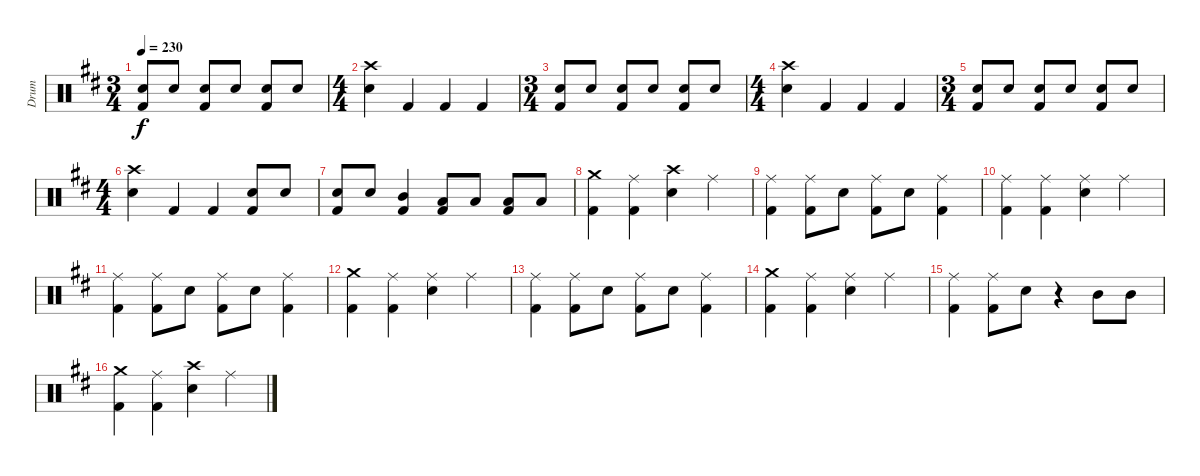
\track ("Drum" "Drum") {instrument percussion}
\staff {score}
\articulation defaults
\ts (3 4)
\tempo 230
\clef neutral
\ks d
("Snare (hit) 2" "Kick (hit) 2").8{dy f} "Snare (hit) 2".8 ("Snare (hit) 2" "Kick (hit) 2").8 "Snare (hit) 2".8 ("Snare (hit) 2" "Kick (hit) 2").8 "Snare (hit) 2".8 |
\ts (4 4)
("Crash high (hit)" "Snare (hit) 2").4 "Kick (hit) 2".4 "Kick (hit) 2".4 "Kick (hit) 2".4 |
\ts (3 4)
("Snare (hit) 2" "Kick (hit) 2").8 "Snare (hit) 2".8 ("Snare (hit) 2" "Kick (hit) 2").8 "Snare (hit) 2".8 ("Snare (hit) 2" "Kick (hit) 2").8 "Snare (hit) 2".8 |
\ts (4 4)
("Crash high (hit)" "Snare (hit) 2").4 "Kick (hit) 2".4 "Kick (hit) 2".4 "Kick (hit) 2".4 |
\ts (3 4)
("Snare (hit) 2" "Kick (hit) 2").8 "Snare (hit) 2".8 ("Snare (hit) 2" "Kick (hit) 2").8 "Snare (hit) 2".8 ("Snare (hit) 2" "Kick (hit) 2").8 "Snare (hit) 2".8 |
\ts (4 4)
("Crash high (hit)" "Snare (hit) 2").4 "Kick (hit) 2".4 "Kick (hit) 2".4 ("Snare (hit) 2" "Kick (hit) 2").8 "Snare (hit) 2".8 |
("Snare (hit) 2" "Kick (hit) 2").8 "Snare (hit) 2".8 ("Mid Tom (hit)" "Kick (hit) 2").4 ("Low Tom (hit)" "Kick (hit) 2").8 "Low Tom (hit)".8 ("Low Tom (hit)" "Kick (hit) 2").8 "Low Tom (hit)".8 |
("Crash medium (hit)" "Kick (hit) 2").4 ("Ride (middle)" "Kick (hit) 2").4 ("Crash high (hit)" "Snare (hit) 2").4 "Ride (middle)".4 |
("Ride (middle)" "Kick (hit) 2").4 ("Ride (middle)" "Kick (hit) 2").8 "Snare (hit) 2".8 ("Ride (middle)" "Kick (hit) 2").8 "Snare (hit) 2".8 ("Ride (middle)" "Kick (hit) 2").4 |
("Ride (middle)" "Kick (hit) 2").4 ("Ride (middle)" "Kick (hit) 2").4 ("Ride (middle)" "Snare (hit) 2").4 "Ride (middle)".4 |
("Ride (middle)" "Kick (hit) 2").4 ("Ride (middle)" "Kick (hit) 2").8 "Snare (hit) 2".8 ("Ride (middle)" "Kick (hit) 2").8 "Snare (hit) 2".8 ("Ride (middle)" "Kick (hit) 2").4 |
("Crash medium (hit)" "Kick (hit) 2").4 ("Ride (middle)" "Kick (hit) 2").4 ("Ride (middle)" "Snare (hit) 2").4 "Ride (middle)".4 |
("Ride (middle)" "Kick (hit) 2").4 ("Ride (middle)" "Kick (hit) 2").8 "Snare (hit) 2".8 ("Ride (middle)" "Kick (hit) 2").8 "Snare (hit) 2".8 ("Ride (middle)" "Kick (hit) 2").4 |
("Crash medium (hit)" "Kick (hit) 2").4 ("Ride (middle)" "Kick (hit) 2").4 ("Ride (middle)" "Snare (hit) 2").4 "Ride (middle)".4 |
("Ride (middle)" "Kick (hit) 2").4 ("Ride (middle)" "Kick (hit) 2").8 "Snare (hit) 2".8 r.4 "Mid Tom (hit)".8 "Mid Tom (hit)".8 |
("Crash medium (hit)" "Kick (hit) 2").4 ("Ride (middle)" "Kick (hit) 2").4 ("Crash high (hit)" "Snare (hit) 2").4 "Ride (middle)".4
